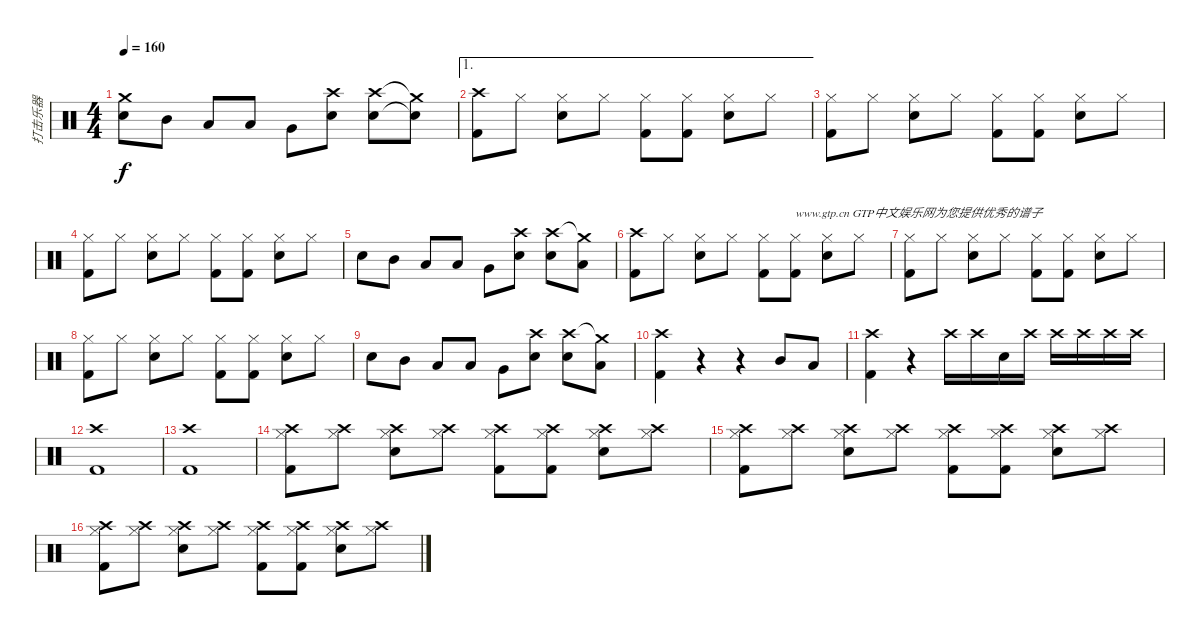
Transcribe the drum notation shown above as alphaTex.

\track ("打击乐器" "打击乐器") {instrument percussion}
\staff {score}
\articulation defaults
\ts (4 4)
\tempo 160
\clef neutral
\ks c
("Crash medium (hit)" "Electric Snare (hit)").8{dy f} "Mid Tom (hit)".8 "Low Tom (hit)".8 "Low Tom (hit)".8 "Very Low Tom (hit)".8 ("Crash high (hit)" "Electric Snare (hit)").8 ("Crash high (hit)" "Electric Snare (hit)").8 ("Crash medium (hit)"{t} "Electric Snare (hit)"{t}).8 |
\ae 1
("Crash high (hit)" "Kick (hit) 2").8 "Hi-Hat (closed)".8 ("Hi-Hat (closed)" "Electric Snare (hit)").8 "Hi-Hat (closed)".8 ("Hi-Hat (closed)" "Kick (hit) 2").8 ("Hi-Hat (closed)" "Kick (hit) 2").8 ("Hi-Hat (closed)" "Electric Snare (hit)").8 "Hi-Hat (closed)".8 |
("Hi-Hat (closed)" "Kick (hit) 2").8 "Hi-Hat (closed)".8 ("Hi-Hat (closed)" "Electric Snare (hit)").8 "Hi-Hat (closed)".8 ("Hi-Hat (closed)" "Kick (hit) 2").8 ("Hi-Hat (closed)" "Kick (hit) 2").8 ("Hi-Hat (closed)" "Electric Snare (hit)").8 "Hi-Hat (closed)".8 |
("Hi-Hat (closed)" "Kick (hit) 2").8 "Hi-Hat (closed)".8 ("Hi-Hat (closed)" "Electric Snare (hit)").8 "Hi-Hat (closed)".8 ("Hi-Hat (closed)" "Kick (hit) 2").8 ("Hi-Hat (closed)" "Kick (hit) 2").8 ("Hi-Hat (closed)" "Electric Snare (hit)").8 "Hi-Hat (closed)".8 |
"Electric Snare (hit)".8 "Mid Tom (hit)".8 "Low Tom (hit)".8 "Low Tom (hit)".8 "Very Low Tom (hit)".8 ("Crash high (hit)" "Electric Snare (hit)").8 ("Crash high (hit)" "Electric Snare (hit)").8 ("Crash medium (hit)"{t} "Low Tom (hit)").8 |
("Crash high (hit)" "Kick (hit) 2").8 "Hi-Hat (closed)".8 ("Hi-Hat (closed)" "Electric Snare (hit)").8 "Hi-Hat (closed)".8 ("Hi-Hat (closed)" "Kick (hit) 2").8 ("Hi-Hat (closed)" "Kick (hit) 2").8{txt "www.gtp.cn GTP中文娱乐网为您提供优秀的谱子"} ("Hi-Hat (closed)" "Electric Snare (hit)").8 "Hi-Hat (closed)".8 |
("Hi-Hat (closed)" "Kick (hit) 2").8 "Hi-Hat (closed)".8 ("Hi-Hat (closed)" "Electric Snare (hit)").8 "Hi-Hat (closed)".8 ("Hi-Hat (closed)" "Kick (hit) 2").8 ("Hi-Hat (closed)" "Kick (hit) 2").8 ("Hi-Hat (closed)" "Electric Snare (hit)").8 "Hi-Hat (closed)".8 |
("Hi-Hat (closed)" "Kick (hit) 2").8 "Hi-Hat (closed)".8 ("Hi-Hat (closed)" "Electric Snare (hit)").8 "Hi-Hat (closed)".8 ("Hi-Hat (closed)" "Kick (hit) 2").8 ("Hi-Hat (closed)" "Kick (hit) 2").8 ("Hi-Hat (closed)" "Electric Snare (hit)").8 "Hi-Hat (closed)".8 |
"Electric Snare (hit)".8 "Mid Tom (hit)".8 "Low Tom (hit)".8 "Low Tom (hit)".8 "Very Low Tom (hit)".8 ("Crash high (hit)" "Electric Snare (hit)").8 ("Crash high (hit)" "Electric Snare (hit)").8 ("Crash medium (hit)"{t} "Low Tom (hit)").8 |
("Crash high (hit)" "Kick (hit) 2").4 r.4 r.4 "Mid Tom (hit)".8 "Low Tom (hit)".8 |
("Crash high (hit)" "Kick (hit) 2").4 r.4 "Crash high (hit)".16 "Crash high (hit)".16 "Snare (hit)".16 "Crash high (hit)".16 "Crash high (hit)".16 "Crash high (hit)".16 "Crash high (hit)".16 "Crash high (hit)".16 |
("Kick (hit) 2" "Crash high (hit)").1 |
("Crash high (hit)" "Kick (hit) 2").1 |
("Crash high (hit)" "Hi-Hat (closed)" "Kick (hit) 2").8 ("Crash high (hit)" "Hi-Hat (closed)").8 ("Crash high (hit)" "Hi-Hat (closed)" "Electric Snare (hit)").8 ("Crash high (hit)" "Hi-Hat (closed)").8 ("Crash high (hit)" "Hi-Hat (closed)" "Kick (hit) 2").8 ("Crash high (hit)" "Hi-Hat (closed)" "Kick (hit) 2").8 ("Crash high (hit)" "Hi-Hat (closed)" "Electric Snare (hit)").8 ("Crash high (hit)" "Hi-Hat (closed)").8 |
("Crash high (hit)" "Hi-Hat (closed)" "Kick (hit) 2").8 ("Crash high (hit)" "Hi-Hat (closed)").8 ("Crash high (hit)" "Hi-Hat (closed)" "Electric Snare (hit)").8 ("Crash high (hit)" "Hi-Hat (closed)").8 ("Crash high (hit)" "Hi-Hat (closed)" "Kick (hit) 2").8 ("Crash high (hit)" "Hi-Hat (closed)" "Kick (hit) 2").8 ("Crash high (hit)" "Hi-Hat (closed)" "Electric Snare (hit)").8 ("Crash high (hit)" "Hi-Hat (closed)").8 |
("Crash high (hit)" "Hi-Hat (closed)" "Kick (hit) 2").8 ("Crash high (hit)" "Hi-Hat (closed)").8 ("Crash high (hit)" "Hi-Hat (closed)" "Electric Snare (hit)").8 ("Crash high (hit)" "Hi-Hat (closed)").8 ("Crash high (hit)" "Hi-Hat (closed)" "Kick (hit) 2").8 ("Crash high (hit)" "Hi-Hat (closed)" "Kick (hit) 2").8 ("Crash high (hit)" "Hi-Hat (closed)" "Electric Snare (hit)").8 ("Crash high (hit)" "Hi-Hat (closed)").8
